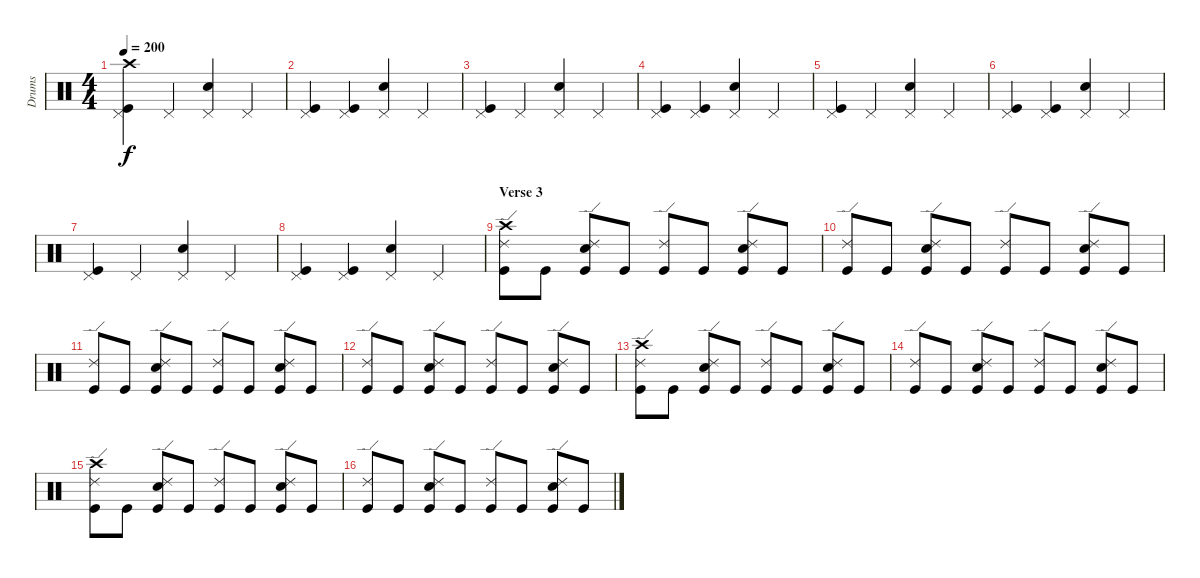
\track ("Drums" "Drums") {instrument percussion}
\staff {score}
\articulation defaults
\ts (4 4)
\tempo 200
\clef neutral
\ks c
("Crash high (hit)" "Pedal Hi-Hat (hit)" "Kick (hit)").4{dy f} "Pedal Hi-Hat (hit)".4 ("Snare (hit) 2" "Pedal Hi-Hat (hit)").4 "Pedal Hi-Hat (hit)".4 |
("Pedal Hi-Hat (hit)" "Kick (hit)").4 ("Pedal Hi-Hat (hit)" "Kick (hit)").4 ("Snare (hit) 2" "Pedal Hi-Hat (hit)").4 "Pedal Hi-Hat (hit)".4 |
("Pedal Hi-Hat (hit)" "Kick (hit)").4 "Pedal Hi-Hat (hit)".4 ("Snare (hit) 2" "Pedal Hi-Hat (hit)").4 "Pedal Hi-Hat (hit)".4 |
("Pedal Hi-Hat (hit)" "Kick (hit)").4 ("Pedal Hi-Hat (hit)" "Kick (hit)").4 ("Snare (hit) 2" "Pedal Hi-Hat (hit)").4 "Pedal Hi-Hat (hit)".4 |
("Pedal Hi-Hat (hit)" "Kick (hit)").4 "Pedal Hi-Hat (hit)".4 ("Snare (hit) 2" "Pedal Hi-Hat (hit)").4 "Pedal Hi-Hat (hit)".4 |
("Pedal Hi-Hat (hit)" "Kick (hit)").4 ("Pedal Hi-Hat (hit)" "Kick (hit)").4 ("Snare (hit) 2" "Pedal Hi-Hat (hit)").4 "Pedal Hi-Hat (hit)".4 |
("Pedal Hi-Hat (hit)" "Kick (hit)").4 "Pedal Hi-Hat (hit)".4 ("Snare (hit) 2" "Pedal Hi-Hat (hit)").4 "Pedal Hi-Hat (hit)".4 |
("Pedal Hi-Hat (hit)" "Kick (hit)").4 ("Pedal Hi-Hat (hit)" "Kick (hit)").4 ("Snare (hit) 2" "Pedal Hi-Hat (hit)").4 "Pedal Hi-Hat (hit)".4 |
\section ("" "Verse 3")
("Crash high (hit)" "Ride (edge) 2" "Kick (hit)").8 "Kick (hit)".8 ("Ride (edge) 2" "Snare (hit) 2" "Kick (hit)").8 "Kick (hit)".8 ("Ride (edge) 2" "Kick (hit)").8 "Kick (hit)".8 ("Ride (edge) 2" "Snare (hit) 2" "Kick (hit)").8 "Kick (hit)".8 |
("Ride (edge) 2" "Kick (hit)").8 "Kick (hit)".8 ("Ride (edge) 2" "Snare (hit) 2" "Kick (hit)").8 "Kick (hit)".8 ("Ride (edge) 2" "Kick (hit)").8 "Kick (hit)".8 ("Ride (edge) 2" "Snare (hit) 2" "Kick (hit)").8 "Kick (hit)".8 |
("Ride (edge) 2" "Kick (hit)").8 "Kick (hit)".8 ("Ride (edge) 2" "Snare (hit) 2" "Kick (hit)").8 "Kick (hit)".8 ("Ride (edge) 2" "Kick (hit)").8 "Kick (hit)".8 ("Ride (edge) 2" "Snare (hit) 2" "Kick (hit)").8 "Kick (hit)".8 |
("Ride (edge) 2" "Kick (hit)").8 "Kick (hit)".8 ("Ride (edge) 2" "Snare (hit) 2" "Kick (hit)").8 "Kick (hit)".8 ("Ride (edge) 2" "Kick (hit)").8 "Kick (hit)".8 ("Ride (edge) 2" "Snare (hit) 2" "Kick (hit)").8 "Kick (hit)".8 |
("Crash high (hit)" "Ride (edge) 2" "Kick (hit)").8 "Kick (hit)".8 ("Ride (edge) 2" "Snare (hit) 2" "Kick (hit)").8 "Kick (hit)".8 ("Ride (edge) 2" "Kick (hit)").8 "Kick (hit)".8 ("Ride (edge) 2" "Snare (hit) 2" "Kick (hit)").8 "Kick (hit)".8 |
("Ride (edge) 2" "Kick (hit)").8 "Kick (hit)".8 ("Ride (edge) 2" "Snare (hit) 2" "Kick (hit)").8 "Kick (hit)".8 ("Ride (edge) 2" "Kick (hit)").8 "Kick (hit)".8 ("Ride (edge) 2" "Snare (hit) 2" "Kick (hit)").8 "Kick (hit)".8 |
("Crash high (hit)" "Ride (edge) 2" "Kick (hit)").8 "Kick (hit)".8 ("Ride (edge) 2" "Snare (hit) 2" "Kick (hit)").8 "Kick (hit)".8 ("Ride (edge) 2" "Kick (hit)").8 "Kick (hit)".8 ("Ride (edge) 2" "Snare (hit) 2" "Kick (hit)").8 "Kick (hit)".8 |
("Ride (edge) 2" "Kick (hit)").8 "Kick (hit)".8 ("Ride (edge) 2" "Snare (hit) 2" "Kick (hit)").8 "Kick (hit)".8 ("Ride (edge) 2" "Kick (hit)").8 "Kick (hit)".8 ("Ride (edge) 2" "Snare (hit) 2" "Kick (hit)").8 "Kick (hit)".8
